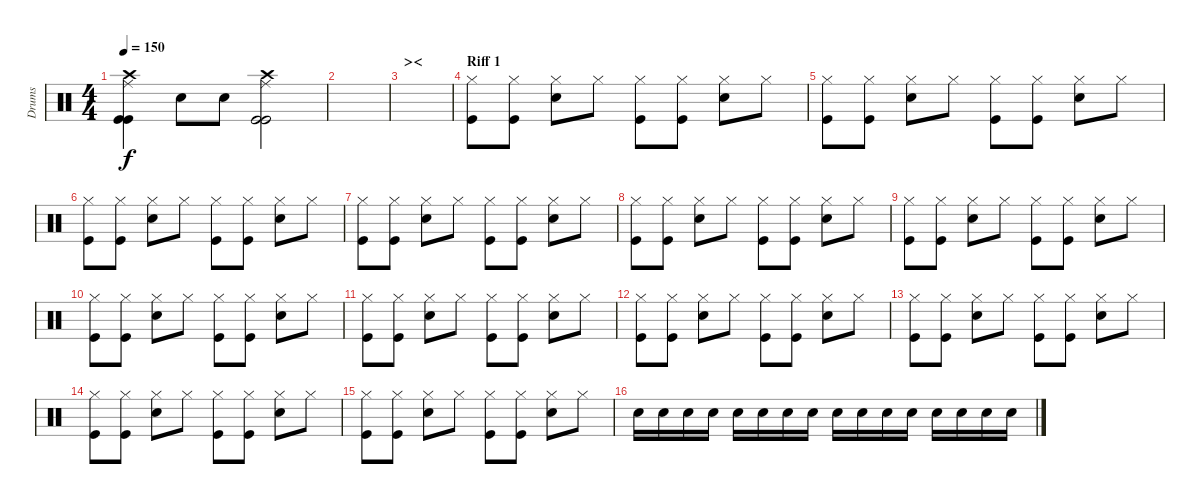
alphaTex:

\track ("Drums" "Drums") {instrument percussion}
\staff {score}
\articulation defaults
\ts (4 4)
\tempo 150
\clef neutral
\ks c
("Crash high (hit)" "Ride (middle)" "Kick (hit)" "Kick (hit)").4{dy f} "Electric Snare (hit)".8 "Electric Snare (hit)".8 ("Crash high (hit)" "Ride (middle)" "Kick (hit)" "Kick (hit)").2 |
|
\section ("" "><")
|
\section ("" "Riff 1")
("Hi-Hat (closed)" "Kick (hit)").8 ("Hi-Hat (closed)" "Kick (hit)").8 ("Hi-Hat (closed)" "Snare (hit) 2").8 "Hi-Hat (closed)".8 ("Hi-Hat (closed)" "Kick (hit)").8 ("Hi-Hat (closed)" "Kick (hit)").8 ("Hi-Hat (closed)" "Snare (hit) 2").8 "Hi-Hat (closed)".8 |
("Hi-Hat (closed)" "Kick (hit)").8 ("Hi-Hat (closed)" "Kick (hit)").8 ("Hi-Hat (closed)" "Snare (hit) 2").8 "Hi-Hat (closed)".8 ("Hi-Hat (closed)" "Kick (hit)").8 ("Hi-Hat (closed)" "Kick (hit)").8 ("Hi-Hat (closed)" "Snare (hit) 2").8 "Hi-Hat (closed)".8 |
("Hi-Hat (closed)" "Kick (hit)").8 ("Hi-Hat (closed)" "Kick (hit)").8 ("Hi-Hat (closed)" "Snare (hit) 2").8 "Hi-Hat (closed)".8 ("Hi-Hat (closed)" "Kick (hit)").8 ("Hi-Hat (closed)" "Kick (hit)").8 ("Hi-Hat (closed)" "Snare (hit) 2").8 "Hi-Hat (closed)".8 |
("Hi-Hat (closed)" "Kick (hit)").8 ("Hi-Hat (closed)" "Kick (hit)").8 ("Hi-Hat (closed)" "Snare (hit) 2").8 "Hi-Hat (closed)".8 ("Hi-Hat (closed)" "Kick (hit)").8 ("Hi-Hat (closed)" "Kick (hit)").8 ("Hi-Hat (closed)" "Snare (hit) 2").8 "Hi-Hat (closed)".8 |
("Hi-Hat (closed)" "Kick (hit)").8 ("Hi-Hat (closed)" "Kick (hit)").8 ("Hi-Hat (closed)" "Snare (hit) 2").8 "Hi-Hat (closed)".8 ("Hi-Hat (closed)" "Kick (hit)").8 ("Hi-Hat (closed)" "Kick (hit)").8 ("Hi-Hat (closed)" "Snare (hit) 2").8 "Hi-Hat (closed)".8 |
("Hi-Hat (closed)" "Kick (hit)").8 ("Hi-Hat (closed)" "Kick (hit)").8 ("Hi-Hat (closed)" "Snare (hit) 2").8 "Hi-Hat (closed)".8 ("Hi-Hat (closed)" "Kick (hit)").8 ("Hi-Hat (closed)" "Kick (hit)").8 ("Hi-Hat (closed)" "Snare (hit) 2").8 "Hi-Hat (closed)".8 |
("Hi-Hat (closed)" "Kick (hit)").8 ("Hi-Hat (closed)" "Kick (hit)").8 ("Hi-Hat (closed)" "Snare (hit) 2").8 "Hi-Hat (closed)".8 ("Hi-Hat (closed)" "Kick (hit)").8 ("Hi-Hat (closed)" "Kick (hit)").8 ("Hi-Hat (closed)" "Snare (hit) 2").8 "Hi-Hat (closed)".8 |
("Hi-Hat (closed)" "Kick (hit)").8 ("Hi-Hat (closed)" "Kick (hit)").8 ("Hi-Hat (closed)" "Snare (hit) 2").8 "Hi-Hat (closed)".8 ("Hi-Hat (closed)" "Kick (hit)").8 ("Hi-Hat (closed)" "Kick (hit)").8 ("Hi-Hat (closed)" "Snare (hit) 2").8 "Hi-Hat (closed)".8 |
("Hi-Hat (closed)" "Kick (hit)").8 ("Hi-Hat (closed)" "Kick (hit)").8 ("Hi-Hat (closed)" "Snare (hit) 2").8 "Hi-Hat (closed)".8 ("Hi-Hat (closed)" "Kick (hit)").8 ("Hi-Hat (closed)" "Kick (hit)").8 ("Hi-Hat (closed)" "Snare (hit) 2").8 "Hi-Hat (closed)".8 |
("Hi-Hat (closed)" "Kick (hit)").8 ("Hi-Hat (closed)" "Kick (hit)").8 ("Hi-Hat (closed)" "Snare (hit) 2").8 "Hi-Hat (closed)".8 ("Hi-Hat (closed)" "Kick (hit)").8 ("Hi-Hat (closed)" "Kick (hit)").8 ("Hi-Hat (closed)" "Snare (hit) 2").8 "Hi-Hat (closed)".8 |
("Hi-Hat (closed)" "Kick (hit)").8 ("Hi-Hat (closed)" "Kick (hit)").8 ("Hi-Hat (closed)" "Snare (hit) 2").8 "Hi-Hat (closed)".8 ("Hi-Hat (closed)" "Kick (hit)").8 ("Hi-Hat (closed)" "Kick (hit)").8 ("Hi-Hat (closed)" "Snare (hit) 2").8 "Hi-Hat (closed)".8 |
("Hi-Hat (closed)" "Kick (hit)").8 ("Hi-Hat (closed)" "Kick (hit)").8 ("Hi-Hat (closed)" "Snare (hit) 2").8 "Hi-Hat (closed)".8 ("Hi-Hat (closed)" "Kick (hit)").8 ("Hi-Hat (closed)" "Kick (hit)").8 ("Hi-Hat (closed)" "Snare (hit) 2").8 "Hi-Hat (closed)".8 |
"Snare (hit) 2".16 "Snare (hit) 2".16 "Snare (hit) 2".16 "Snare (hit) 2".16 "Snare (hit) 2".16 "Snare (hit) 2".16 "Snare (hit) 2".16 "Snare (hit) 2".16 "Snare (hit) 2".16 "Snare (hit) 2".16 "Snare (hit) 2".16 "Snare (hit) 2".16 "Snare (hit) 2".16 "Snare (hit) 2".16 "Snare (hit) 2".16 "Snare (hit) 2".16
